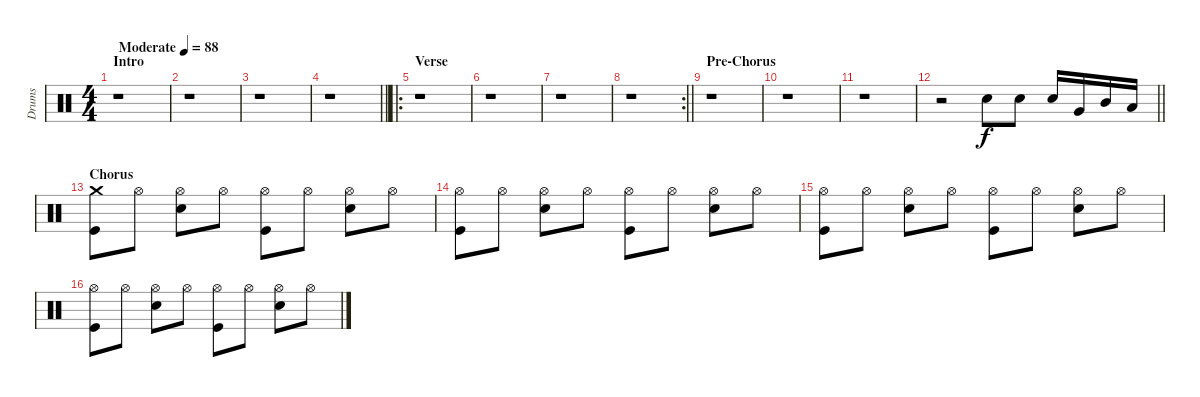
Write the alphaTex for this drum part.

\track ("Drums" "Drums") {instrument percussion}
\staff {score}
\articulation defaults
\ts (4 4)
\section ("" "Intro")
\tempo (88 "Moderate")
\clef neutral
\ks c
r.1{dy f} |
r.1 |
r.1 |
\barLineRight lightlight
r.1 |
\ro
\section ("" "Verse")
r.1 |
r.1 |
r.1 |
\rc 2
\barLineRight lightlight
r.1 |
\section ("" "Pre-Chorus")
r.1 |
r.1 |
r.1 |
\barLineRight lightlight
r.2 "Snare (hit) 2".8 "Snare (hit) 2".8 "Snare (hit) 2".16 "Very Low Tom (hit)".16 "Mid Tom (hit)".16 "Low Tom (hit)".16 |
\section ("" "Chorus")
("Kick (hit)" "Crash medium (hit)").8 "Hi-Hat (open)".8 ("Hi-Hat (open)" "Snare (hit) 2").8 "Hi-Hat (open)".8 ("Kick (hit)" "Hi-Hat (open)").8 "Hi-Hat (open)".8 ("Hi-Hat (open)" "Snare (hit) 2").8 "Hi-Hat (open)".8 |
("Kick (hit)" "Hi-Hat (open)").8 "Hi-Hat (open)".8 ("Hi-Hat (open)" "Snare (hit) 2").8 "Hi-Hat (open)".8 ("Kick (hit)" "Hi-Hat (open)").8 "Hi-Hat (open)".8 ("Hi-Hat (open)" "Snare (hit) 2").8 "Hi-Hat (open)".8 |
("Kick (hit)" "Hi-Hat (open)").8 "Hi-Hat (open)".8 ("Hi-Hat (open)" "Snare (hit) 2").8 "Hi-Hat (open)".8 ("Kick (hit)" "Hi-Hat (open)").8 "Hi-Hat (open)".8 ("Hi-Hat (open)" "Snare (hit) 2").8 "Hi-Hat (open)".8 |
("Kick (hit)" "Hi-Hat (open)").8 "Hi-Hat (open)".8 ("Hi-Hat (open)" "Snare (hit) 2").8 "Hi-Hat (open)".8 ("Kick (hit)" "Hi-Hat (open)").8 "Hi-Hat (open)".8 ("Hi-Hat (open)" "Snare (hit) 2").8 "Hi-Hat (open)".8
